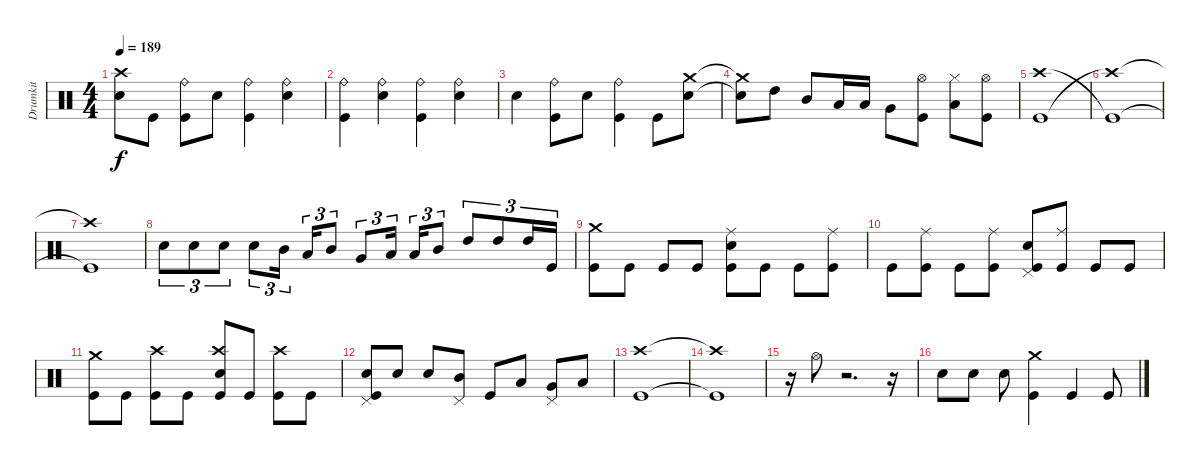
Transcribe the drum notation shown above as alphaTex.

\track ("Drumkit" "Drumkit") {instrument percussion}
\staff {score}
\articulation defaults
\ts (4 4)
\tempo 189
\clef neutral
\ks c
("Snare (hit) 2" "Crash high (hit)").8{dy f} "Kick (hit)".8 ("Kick (hit)" "Ride (bell)").8 "Snare (hit) 2".8 ("Kick (hit)" "Ride (bell)").4 ("Snare (hit) 2" "Ride (bell)").4 |
("Kick (hit)" "Ride (bell)").4 ("Snare (hit) 2" "Ride (bell)").4 ("Kick (hit)" "Ride (bell)").4 ("Snare (hit) 2" "Ride (bell)").4 |
"Snare (hit) 2".4 ("Kick (hit)" "Ride (bell)").8 "Snare (hit) 2".8 ("Kick (hit)" "Ride (bell)").4 "Kick (hit)".8 ("Snare (hit) 2" "Crash medium (hit)").8 |
("Snare (hit) 2"{t} "Crash medium (hit)"{t}).8 "High Tom (hit)".8 "Mid Tom (hit)".8 "Low Tom (hit)".16 "Low Tom (hit)".16 "Very Low Tom (hit)".8 ("Kick (hit)" "Hi-Hat (open)").8 ("Low Floor Tom (hit)" "Hi-Hat (closed)").8 ("Kick (hit)" "Hi-Hat (open)").8 |
("Crash high (hit)" "Kick (hit)").1 |
("Kick (hit)"{t} "Crash high (hit)"{t}).1 |
("Kick (hit)"{t} "Crash high (hit)"{t}).1 |
"Snare (hit) 2".8{tu (3 2)} "Snare (hit) 2".8{tu (3 2)} "Snare (hit) 2".8{tu (3 2)} "Snare (hit) 2".8{tu (3 2)} "Mid Tom (hit)".16{tu (3 2)} "Low Tom (hit)".16{tu (3 2)} "Mid Tom (hit)".8{tu (3 2)} "Very Low Tom (hit)".8{tu (3 2)} "Low Tom (hit)".16{tu (3 2)} "Low Tom (hit)".16{tu (3 2)} "Mid Tom (hit)".8{tu (3 2)} "High Tom (hit)".8{tu (3 2)} "High Tom (hit)".8{tu (3 2)} "High Tom (hit)".16{tu (3 2)} "Kick (hit)".16{tu (3 2)} |
("Kick (hit)" "Crash medium (hit)").8 "Kick (hit)".8 "Kick (hit)".8 "Kick (hit)".8 ("Kick (hit)" "Snare (hit) 2" "Ride (middle)").8 "Kick (hit)".8 "Kick (hit)".8 ("Kick (hit)" "Ride (middle)").8 |
"Kick (hit)".8 ("Kick (hit)" "Ride (middle)").8 "Kick (hit)".8 ("Kick (hit)" "Ride (middle)").8 ("Kick (hit)" "Snare (hit) 2" "Pedal Hi-Hat (hit)").8 ("Kick (hit)" "Ride (middle)").8 "Kick (hit)".8 "Kick (hit)".8 |
("Kick (hit)" "Crash medium (hit)").8 "Kick (hit)".8 ("Kick (hit)" "Crash high (hit)").8 "Kick (hit)".8 ("Kick (hit)" "Snare (hit) 2" "Crash high (hit)").8 "Kick (hit)".8 ("Kick (hit)" "Crash high (hit)").8 "Kick (hit)".8 |
("Kick (hit)" "Snare (hit) 2" "Pedal Hi-Hat (hit)").8 "Snare (hit) 2".8 "Snare (hit) 2".8 ("Mid Tom (hit)" "Pedal Hi-Hat (hit)").8 "Kick (hit)".8 "Low Tom (hit)".8 ("Very Low Tom (hit)" "Pedal Hi-Hat (hit)").8 "Low Floor Tom (hit)".8 |
("Kick (hit)" "Crash high (hit)").1 |
("Kick (hit)"{t} "Crash high (hit)"{t}).1 |
r.16 "Hi-Hat (open)".8 r.2{d} r.16 |
"Snare (hit) 2".8 "Snare (hit) 2".8 "Snare (hit) 2".8 ("Kick (hit)" "Crash medium (hit)").4 "Kick (hit)".4 "Kick (hit)".8
